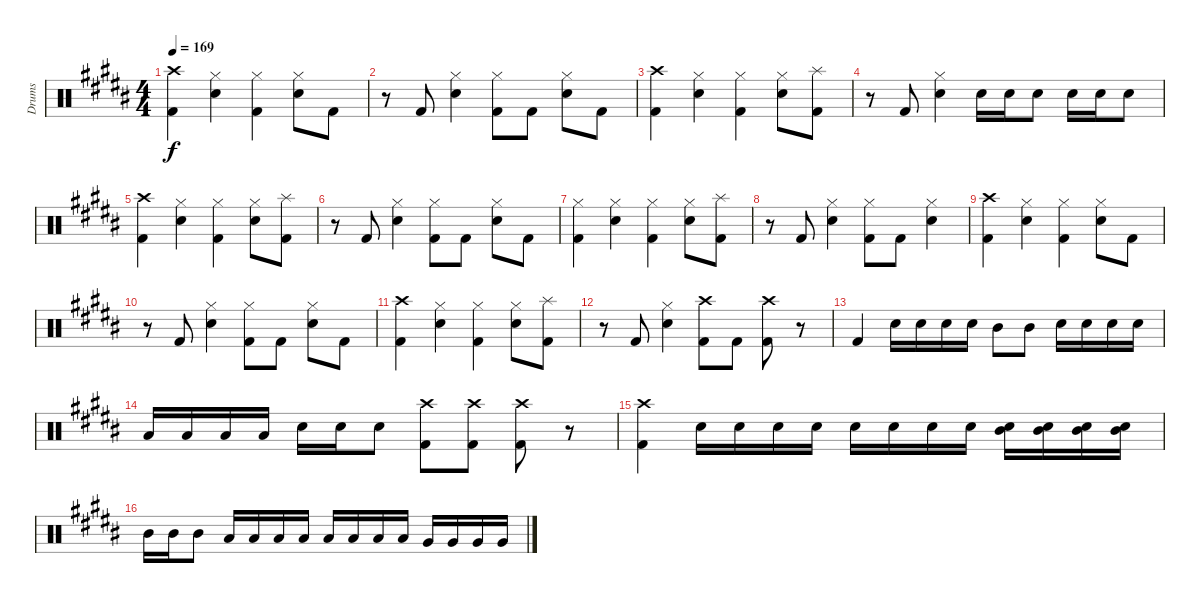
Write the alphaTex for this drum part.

\track ("Drums" "Drums") {instrument percussion}
\staff {score}
\articulation defaults
\ts (4 4)
\tempo 169
\clef neutral
\ks b
("Crash high (hit)" "Kick (hit) 2").4{dy f} ("Hi-Hat (closed)" "Snare (hit) 2").4 ("Hi-Hat (closed)" "Kick (hit) 2").4 ("Hi-Hat (closed)" "Snare (hit) 2").8 "Kick (hit) 2".8 |
r.8 "Kick (hit) 2".8 ("Hi-Hat (closed)" "Snare (hit) 2").4 ("Hi-Hat (closed)" "Kick (hit) 2").8 "Kick (hit) 2".8 ("Hi-Hat (closed)" "Snare (hit) 2").8 "Kick (hit) 2".8 |
("Crash high (hit)" "Kick (hit) 2").4 ("Hi-Hat (closed)" "Snare (hit) 2").4 ("Hi-Hat (closed)" "Kick (hit) 2").4 ("Hi-Hat (closed)" "Snare (hit) 2").8 ("Splash (hit)" "Kick (hit) 2").8 |
r.8 "Kick (hit) 2".8 ("Hi-Hat (closed)" "Snare (hit) 2").4 "Snare (hit) 2".16 "Snare (hit) 2".16 "Snare (hit) 2".8 "Snare (hit) 2".16 "Snare (hit) 2".16 "Snare (hit) 2".8 |
("Crash high (hit)" "Kick (hit) 2").4 ("Hi-Hat (closed)" "Snare (hit) 2").4 ("Hi-Hat (closed)" "Kick (hit) 2").4 ("Hi-Hat (closed)" "Snare (hit) 2").8 ("Splash (hit)" "Kick (hit) 2").8 |
r.8 "Kick (hit) 2".8 ("Hi-Hat (closed)" "Snare (hit) 2").4 ("Hi-Hat (closed)" "Kick (hit) 2").8 "Kick (hit) 2".8 ("Hi-Hat (closed)" "Snare (hit) 2").8 "Kick (hit) 2".8 |
("Hi-Hat (closed)" "Kick (hit) 2").4 ("Hi-Hat (closed)" "Snare (hit) 2").4 ("Hi-Hat (closed)" "Kick (hit) 2").4 ("Hi-Hat (closed)" "Snare (hit) 2").8 ("Splash (hit)" "Kick (hit) 2").8 |
r.8 "Kick (hit) 2".8 ("Hi-Hat (closed)" "Snare (hit) 2").4 ("Hi-Hat (closed)" "Kick (hit) 2").8 "Kick (hit) 2".8 ("Hi-Hat (closed)" "Snare (hit) 2").4 |
("Crash high (hit)" "Kick (hit) 2").4 ("Hi-Hat (closed)" "Snare (hit) 2").4 ("Hi-Hat (closed)" "Kick (hit) 2").4 ("Hi-Hat (closed)" "Snare (hit) 2").8 "Kick (hit) 2".8 |
r.8 "Kick (hit) 2".8 ("Hi-Hat (closed)" "Snare (hit) 2").4 ("Hi-Hat (closed)" "Kick (hit) 2").8 "Kick (hit) 2".8 ("Hi-Hat (closed)" "Snare (hit) 2").8 "Kick (hit) 2".8 |
("Crash high (hit)" "Kick (hit) 2").4 ("Hi-Hat (closed)" "Snare (hit) 2").4 ("Hi-Hat (closed)" "Kick (hit) 2").4 ("Hi-Hat (closed)" "Snare (hit) 2").8 ("Splash (hit)" "Kick (hit) 2").8 |
r.8 "Kick (hit) 2".8 ("Hi-Hat (closed)" "Snare (hit) 2").4 ("Crash high (hit)" "Kick (hit) 2").8 "Kick (hit) 2".8 ("Crash high (hit)" "Kick (hit) 2").8 r.8 |
"Kick (hit) 2".4 "Snare (hit) 2".16 "Snare (hit) 2".16 "Snare (hit) 2".16 "Snare (hit) 2".16 "Mid Tom (hit)".8 "Mid Tom (hit)".8 "Snare (hit) 2".16 "Snare (hit) 2".16 "Snare (hit) 2".16 "Snare (hit) 2".16 |
"Low Tom (hit)".16 "Low Tom (hit)".16 "Low Tom (hit)".16 "Low Tom (hit)".16 "Snare (hit) 2".16 "Snare (hit) 2".16 "Snare (hit) 2".8 ("Crash high (hit)" "Kick (hit) 2").8 ("Crash high (hit)" "Kick (hit) 2").8 ("Crash high (hit)" "Kick (hit) 2").8 r.8 |
("Crash high (hit)" "Kick (hit) 2").4 "Snare (hit) 2".16 "Snare (hit) 2".16 "Snare (hit) 2".16 "Snare (hit) 2".16 "Snare (hit) 2".16 "Snare (hit) 2".16 "Snare (hit) 2".16 "Snare (hit) 2".16 ("Mid Tom (hit)" "Snare (hit) 2").16 ("Mid Tom (hit)" "Snare (hit) 2").16 ("Mid Tom (hit)" "Snare (hit) 2").16 ("Mid Tom (hit)" "Snare (hit) 2").16 |
"Mid Tom (hit)".16 "Mid Tom (hit)".16 "Mid Tom (hit)".8 "Low Tom (hit)".16 "Low Tom (hit)".16 "Low Tom (hit)".16 "Low Tom (hit)".16 "Low Tom (hit)".16 "Low Tom (hit)".16 "Low Tom (hit)".16 "Low Tom (hit)".16 "Very Low Tom (hit)".16 "Very Low Tom (hit)".16 "Very Low Tom (hit)".16 "Very Low Tom (hit)".16
